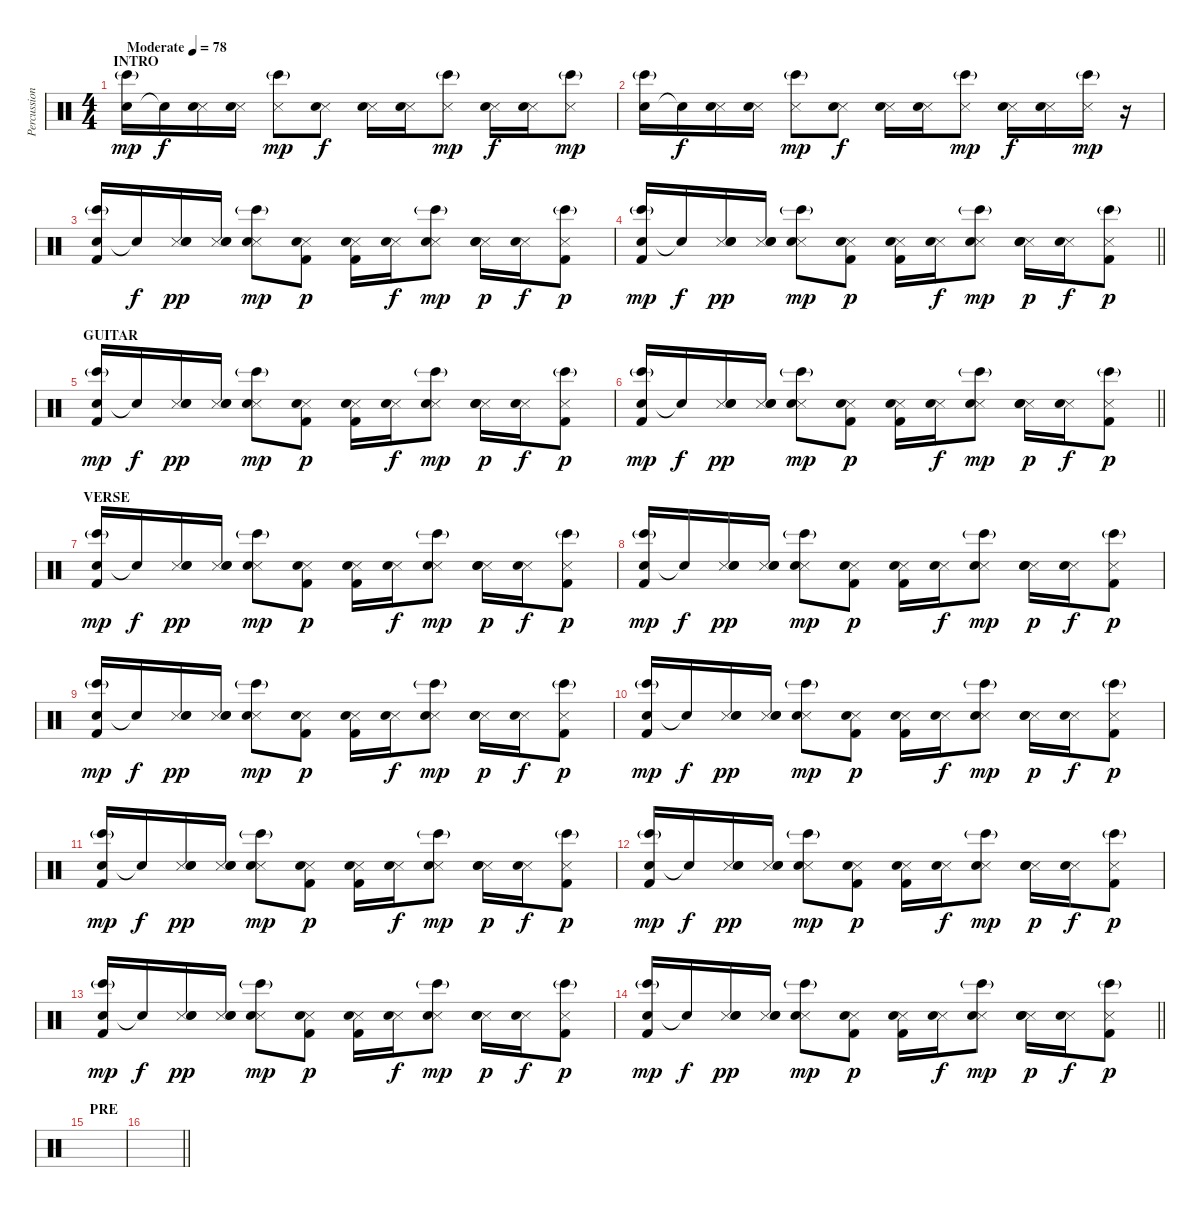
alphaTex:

\track ("Percussion" "Percussion") {instrument percussion}
\staff {score}
\articulation defaults
\ts (4 4)
\section ("" "INTRO")
\tempo (78 "Moderate")
\clef neutral
\ks c
("Hand Clap (hit)" "Bongo High (hit)"{g}).16{dy mp} "Snare (hit)"{t}.16{dy f} ("Snare (side stick) 3" "Hand Clap (hit)").16 ("Snare (side stick) 3" "Hand Clap (hit)").16 ("Snare (side stick) 3" "Bongo High (hit)"{g}).8{dy mp} ("Snare (side stick) 3" "Hand Clap (hit)").8{dy f} ("Snare (side stick) 3" "Hand Clap (hit)").16 ("Snare (side stick) 3" "Hand Clap (hit)").16 ("Snare (side stick) 3" "Bongo High (hit)"{g}).8{dy mp} ("Snare (side stick) 3" "Hand Clap (hit)").16{dy f} ("Snare (side stick) 3" "Hand Clap (hit)").16 ("Snare (side stick) 3" "Bongo High (hit)"{g}).8{dy mp} |
("Hand Clap (hit)" "Bongo High (hit)"{g}).16 "Snare (hit)"{t}.16{dy f} ("Snare (side stick) 3" "Hand Clap (hit)").16 ("Snare (side stick) 3" "Hand Clap (hit)").16 ("Snare (side stick) 3" "Bongo High (hit)"{g}).8{dy mp} ("Snare (side stick) 3" "Hand Clap (hit)").8{dy f} ("Snare (side stick) 3" "Hand Clap (hit)").16 ("Snare (side stick) 3" "Hand Clap (hit)").16 ("Snare (side stick) 3" "Bongo High (hit)"{g}).8{dy mp} ("Snare (side stick) 3" "Hand Clap (hit)").16{dy f} ("Snare (side stick) 3" "Hand Clap (hit)").16 ("Snare (side stick) 3" "Bongo High (hit)"{g}).16{dy mp} r.16 |
("Hand Clap (hit)" "Bongo High (hit)"{g} "Kick (hit) 2").16 "Snare (hit)"{t}.16{dy f} ("Snare (side stick) 3" "Hand Clap (hit)" "Snare (hit) 2").16{dy pp} ("Snare (side stick) 3" "Hand Clap (hit)" "Snare (hit) 2").16 ("Snare (side stick) 3" "Snare (hit) 2" "Bongo High (hit)"{g}).8{dy mp} ("Snare (side stick) 3" "Hand Clap (hit)" "Kick (hit) 2").8{dy p} ("Snare (side stick) 3" "Hand Clap (hit)" "Kick (hit) 2").16 ("Snare (side stick) 3" "Hand Clap (hit)").16{dy f} ("Snare (side stick) 3" "Snare (hit) 2" "Bongo High (hit)"{g}).8{dy mp} ("Snare (side stick) 3" "Hand Clap (hit)" "Snare (hit) 2").16{dy p} ("Snare (side stick) 3" "Hand Clap (hit)").16{dy f} ("Snare (side stick) 3" "Bongo High (hit)"{g} "Kick (hit) 2").8{dy p} |
\barLineRight lightlight
("Hand Clap (hit)" "Bongo High (hit)"{g} "Kick (hit) 2").16{dy mp} "Snare (hit)"{t}.16{dy f} ("Snare (side stick) 3" "Hand Clap (hit)" "Snare (hit) 2").16{dy pp} ("Snare (side stick) 3" "Hand Clap (hit)" "Snare (hit) 2").16 ("Snare (side stick) 3" "Snare (hit) 2" "Bongo High (hit)"{g}).8{dy mp} ("Snare (side stick) 3" "Hand Clap (hit)" "Kick (hit) 2").8{dy p} ("Snare (side stick) 3" "Hand Clap (hit)" "Kick (hit) 2").16 ("Snare (side stick) 3" "Hand Clap (hit)").16{dy f} ("Snare (side stick) 3" "Snare (hit) 2" "Bongo High (hit)"{g}).8{dy mp} ("Snare (side stick) 3" "Hand Clap (hit)" "Snare (hit) 2").16{dy p} ("Snare (side stick) 3" "Hand Clap (hit)").16{dy f} ("Snare (side stick) 3" "Bongo High (hit)"{g} "Kick (hit) 2").8{dy p} |
\section ("" "GUITAR")
("Hand Clap (hit)" "Bongo High (hit)"{g} "Kick (hit) 2").16{dy mp} "Snare (hit)"{t}.16{dy f} ("Snare (side stick) 3" "Hand Clap (hit)" "Snare (hit) 2").16{dy pp} ("Snare (side stick) 3" "Hand Clap (hit)" "Snare (hit) 2").16 ("Snare (side stick) 3" "Snare (hit) 2" "Bongo High (hit)"{g}).8{dy mp} ("Snare (side stick) 3" "Hand Clap (hit)" "Kick (hit) 2").8{dy p} ("Snare (side stick) 3" "Hand Clap (hit)" "Kick (hit) 2").16 ("Snare (side stick) 3" "Hand Clap (hit)").16{dy f} ("Snare (side stick) 3" "Snare (hit) 2" "Bongo High (hit)"{g}).8{dy mp} ("Snare (side stick) 3" "Hand Clap (hit)" "Snare (hit) 2").16{dy p} ("Snare (side stick) 3" "Hand Clap (hit)").16{dy f} ("Snare (side stick) 3" "Bongo High (hit)"{g} "Kick (hit) 2").8{dy p} |
\barLineRight lightlight
("Hand Clap (hit)" "Bongo High (hit)"{g} "Kick (hit) 2").16{dy mp} "Snare (hit)"{t}.16{dy f} ("Snare (side stick) 3" "Hand Clap (hit)" "Snare (hit) 2").16{dy pp} ("Snare (side stick) 3" "Hand Clap (hit)" "Snare (hit) 2").16 ("Snare (side stick) 3" "Snare (hit) 2" "Bongo High (hit)"{g}).8{dy mp} ("Snare (side stick) 3" "Hand Clap (hit)" "Kick (hit) 2").8{dy p} ("Snare (side stick) 3" "Hand Clap (hit)" "Kick (hit) 2").16 ("Snare (side stick) 3" "Hand Clap (hit)").16{dy f} ("Snare (side stick) 3" "Snare (hit) 2" "Bongo High (hit)"{g}).8{dy mp} ("Snare (side stick) 3" "Hand Clap (hit)" "Snare (hit) 2").16{dy p} ("Snare (side stick) 3" "Hand Clap (hit)").16{dy f} ("Snare (side stick) 3" "Bongo High (hit)"{g} "Kick (hit) 2").8{dy p} |
\section ("" "VERSE")
("Hand Clap (hit)" "Bongo High (hit)"{g} "Kick (hit) 2").16{dy mp} "Snare (hit)"{t}.16{dy f} ("Snare (side stick) 3" "Hand Clap (hit)" "Snare (hit) 2").16{dy pp} ("Snare (side stick) 3" "Hand Clap (hit)" "Snare (hit) 2").16 ("Snare (side stick) 3" "Snare (hit) 2" "Bongo High (hit)"{g}).8{dy mp} ("Snare (side stick) 3" "Hand Clap (hit)" "Kick (hit) 2").8{dy p} ("Snare (side stick) 3" "Hand Clap (hit)" "Kick (hit) 2").16 ("Snare (side stick) 3" "Hand Clap (hit)").16{dy f} ("Snare (side stick) 3" "Snare (hit) 2" "Bongo High (hit)"{g}).8{dy mp} ("Snare (side stick) 3" "Hand Clap (hit)" "Snare (hit) 2").16{dy p} ("Snare (side stick) 3" "Hand Clap (hit)").16{dy f} ("Snare (side stick) 3" "Bongo High (hit)"{g} "Kick (hit) 2").8{dy p} |
("Hand Clap (hit)" "Bongo High (hit)"{g} "Kick (hit) 2").16{dy mp} "Snare (hit)"{t}.16{dy f} ("Snare (side stick) 3" "Hand Clap (hit)" "Snare (hit) 2").16{dy pp} ("Snare (side stick) 3" "Hand Clap (hit)" "Snare (hit) 2").16 ("Snare (side stick) 3" "Snare (hit) 2" "Bongo High (hit)"{g}).8{dy mp} ("Snare (side stick) 3" "Hand Clap (hit)" "Kick (hit) 2").8{dy p} ("Snare (side stick) 3" "Hand Clap (hit)" "Kick (hit) 2").16 ("Snare (side stick) 3" "Hand Clap (hit)").16{dy f} ("Snare (side stick) 3" "Snare (hit) 2" "Bongo High (hit)"{g}).8{dy mp} ("Snare (side stick) 3" "Hand Clap (hit)" "Snare (hit) 2").16{dy p} ("Snare (side stick) 3" "Hand Clap (hit)").16{dy f} ("Snare (side stick) 3" "Bongo High (hit)"{g} "Kick (hit) 2").8{dy p} |
("Hand Clap (hit)" "Bongo High (hit)"{g} "Kick (hit) 2").16{dy mp} "Snare (hit)"{t}.16{dy f} ("Snare (side stick) 3" "Hand Clap (hit)" "Snare (hit) 2").16{dy pp} ("Snare (side stick) 3" "Hand Clap (hit)" "Snare (hit) 2").16 ("Snare (side stick) 3" "Snare (hit) 2" "Bongo High (hit)"{g}).8{dy mp} ("Snare (side stick) 3" "Hand Clap (hit)" "Kick (hit) 2").8{dy p} ("Snare (side stick) 3" "Hand Clap (hit)" "Kick (hit) 2").16 ("Snare (side stick) 3" "Hand Clap (hit)").16{dy f} ("Snare (side stick) 3" "Snare (hit) 2" "Bongo High (hit)"{g}).8{dy mp} ("Snare (side stick) 3" "Hand Clap (hit)" "Snare (hit) 2").16{dy p} ("Snare (side stick) 3" "Hand Clap (hit)").16{dy f} ("Snare (side stick) 3" "Bongo High (hit)"{g} "Kick (hit) 2").8{dy p} |
("Hand Clap (hit)" "Bongo High (hit)"{g} "Kick (hit) 2").16{dy mp} "Snare (hit)"{t}.16{dy f} ("Snare (side stick) 3" "Hand Clap (hit)" "Snare (hit) 2").16{dy pp} ("Snare (side stick) 3" "Hand Clap (hit)" "Snare (hit) 2").16 ("Snare (side stick) 3" "Snare (hit) 2" "Bongo High (hit)"{g}).8{dy mp} ("Snare (side stick) 3" "Hand Clap (hit)" "Kick (hit) 2").8{dy p} ("Snare (side stick) 3" "Hand Clap (hit)" "Kick (hit) 2").16 ("Snare (side stick) 3" "Hand Clap (hit)").16{dy f} ("Snare (side stick) 3" "Snare (hit) 2" "Bongo High (hit)"{g}).8{dy mp} ("Snare (side stick) 3" "Hand Clap (hit)" "Snare (hit) 2").16{dy p} ("Snare (side stick) 3" "Hand Clap (hit)").16{dy f} ("Snare (side stick) 3" "Bongo High (hit)"{g} "Kick (hit) 2").8{dy p} |
("Hand Clap (hit)" "Bongo High (hit)"{g} "Kick (hit) 2").16{dy mp} "Snare (hit)"{t}.16{dy f} ("Snare (side stick) 3" "Hand Clap (hit)" "Snare (hit) 2").16{dy pp} ("Snare (side stick) 3" "Hand Clap (hit)" "Snare (hit) 2").16 ("Snare (side stick) 3" "Snare (hit) 2" "Bongo High (hit)"{g}).8{dy mp} ("Snare (side stick) 3" "Hand Clap (hit)" "Kick (hit) 2").8{dy p} ("Snare (side stick) 3" "Hand Clap (hit)" "Kick (hit) 2").16 ("Snare (side stick) 3" "Hand Clap (hit)").16{dy f} ("Snare (side stick) 3" "Snare (hit) 2" "Bongo High (hit)"{g}).8{dy mp} ("Snare (side stick) 3" "Hand Clap (hit)" "Snare (hit) 2").16{dy p} ("Snare (side stick) 3" "Hand Clap (hit)").16{dy f} ("Snare (side stick) 3" "Bongo High (hit)"{g} "Kick (hit) 2").8{dy p} |
("Hand Clap (hit)" "Bongo High (hit)"{g} "Kick (hit) 2").16{dy mp} "Snare (hit)"{t}.16{dy f} ("Snare (side stick) 3" "Hand Clap (hit)" "Snare (hit) 2").16{dy pp} ("Snare (side stick) 3" "Hand Clap (hit)" "Snare (hit) 2").16 ("Snare (side stick) 3" "Snare (hit) 2" "Bongo High (hit)"{g}).8{dy mp} ("Snare (side stick) 3" "Hand Clap (hit)" "Kick (hit) 2").8{dy p} ("Snare (side stick) 3" "Hand Clap (hit)" "Kick (hit) 2").16 ("Snare (side stick) 3" "Hand Clap (hit)").16{dy f} ("Snare (side stick) 3" "Snare (hit) 2" "Bongo High (hit)"{g}).8{dy mp} ("Snare (side stick) 3" "Hand Clap (hit)" "Snare (hit) 2").16{dy p} ("Snare (side stick) 3" "Hand Clap (hit)").16{dy f} ("Snare (side stick) 3" "Bongo High (hit)"{g} "Kick (hit) 2").8{dy p} |
("Hand Clap (hit)" "Bongo High (hit)"{g} "Kick (hit) 2").16{dy mp} "Snare (hit)"{t}.16{dy f} ("Snare (side stick) 3" "Hand Clap (hit)" "Snare (hit) 2").16{dy pp} ("Snare (side stick) 3" "Hand Clap (hit)" "Snare (hit) 2").16 ("Snare (side stick) 3" "Snare (hit) 2" "Bongo High (hit)"{g}).8{dy mp} ("Snare (side stick) 3" "Hand Clap (hit)" "Kick (hit) 2").8{dy p} ("Snare (side stick) 3" "Hand Clap (hit)" "Kick (hit) 2").16 ("Snare (side stick) 3" "Hand Clap (hit)").16{dy f} ("Snare (side stick) 3" "Snare (hit) 2" "Bongo High (hit)"{g}).8{dy mp} ("Snare (side stick) 3" "Hand Clap (hit)" "Snare (hit) 2").16{dy p} ("Snare (side stick) 3" "Hand Clap (hit)").16{dy f} ("Snare (side stick) 3" "Bongo High (hit)"{g} "Kick (hit) 2").8{dy p} |
\barLineRight lightlight
("Hand Clap (hit)" "Bongo High (hit)"{g} "Kick (hit) 2").16{dy mp} "Snare (hit)"{t}.16{dy f} ("Snare (side stick) 3" "Hand Clap (hit)" "Snare (hit) 2").16{dy pp} ("Snare (side stick) 3" "Hand Clap (hit)" "Snare (hit) 2").16 ("Snare (side stick) 3" "Snare (hit) 2" "Bongo High (hit)"{g}).8{dy mp} ("Snare (side stick) 3" "Hand Clap (hit)" "Kick (hit) 2").8{dy p} ("Snare (side stick) 3" "Hand Clap (hit)" "Kick (hit) 2").16 ("Snare (side stick) 3" "Hand Clap (hit)").16{dy f} ("Snare (side stick) 3" "Snare (hit) 2" "Bongo High (hit)"{g}).8{dy mp} ("Snare (side stick) 3" "Hand Clap (hit)" "Snare (hit) 2").16{dy p} ("Snare (side stick) 3" "Hand Clap (hit)").16{dy f} ("Snare (side stick) 3" "Bongo High (hit)"{g} "Kick (hit) 2").8{dy p} |
\section ("" "PRE")
|
\barLineRight lightlight
